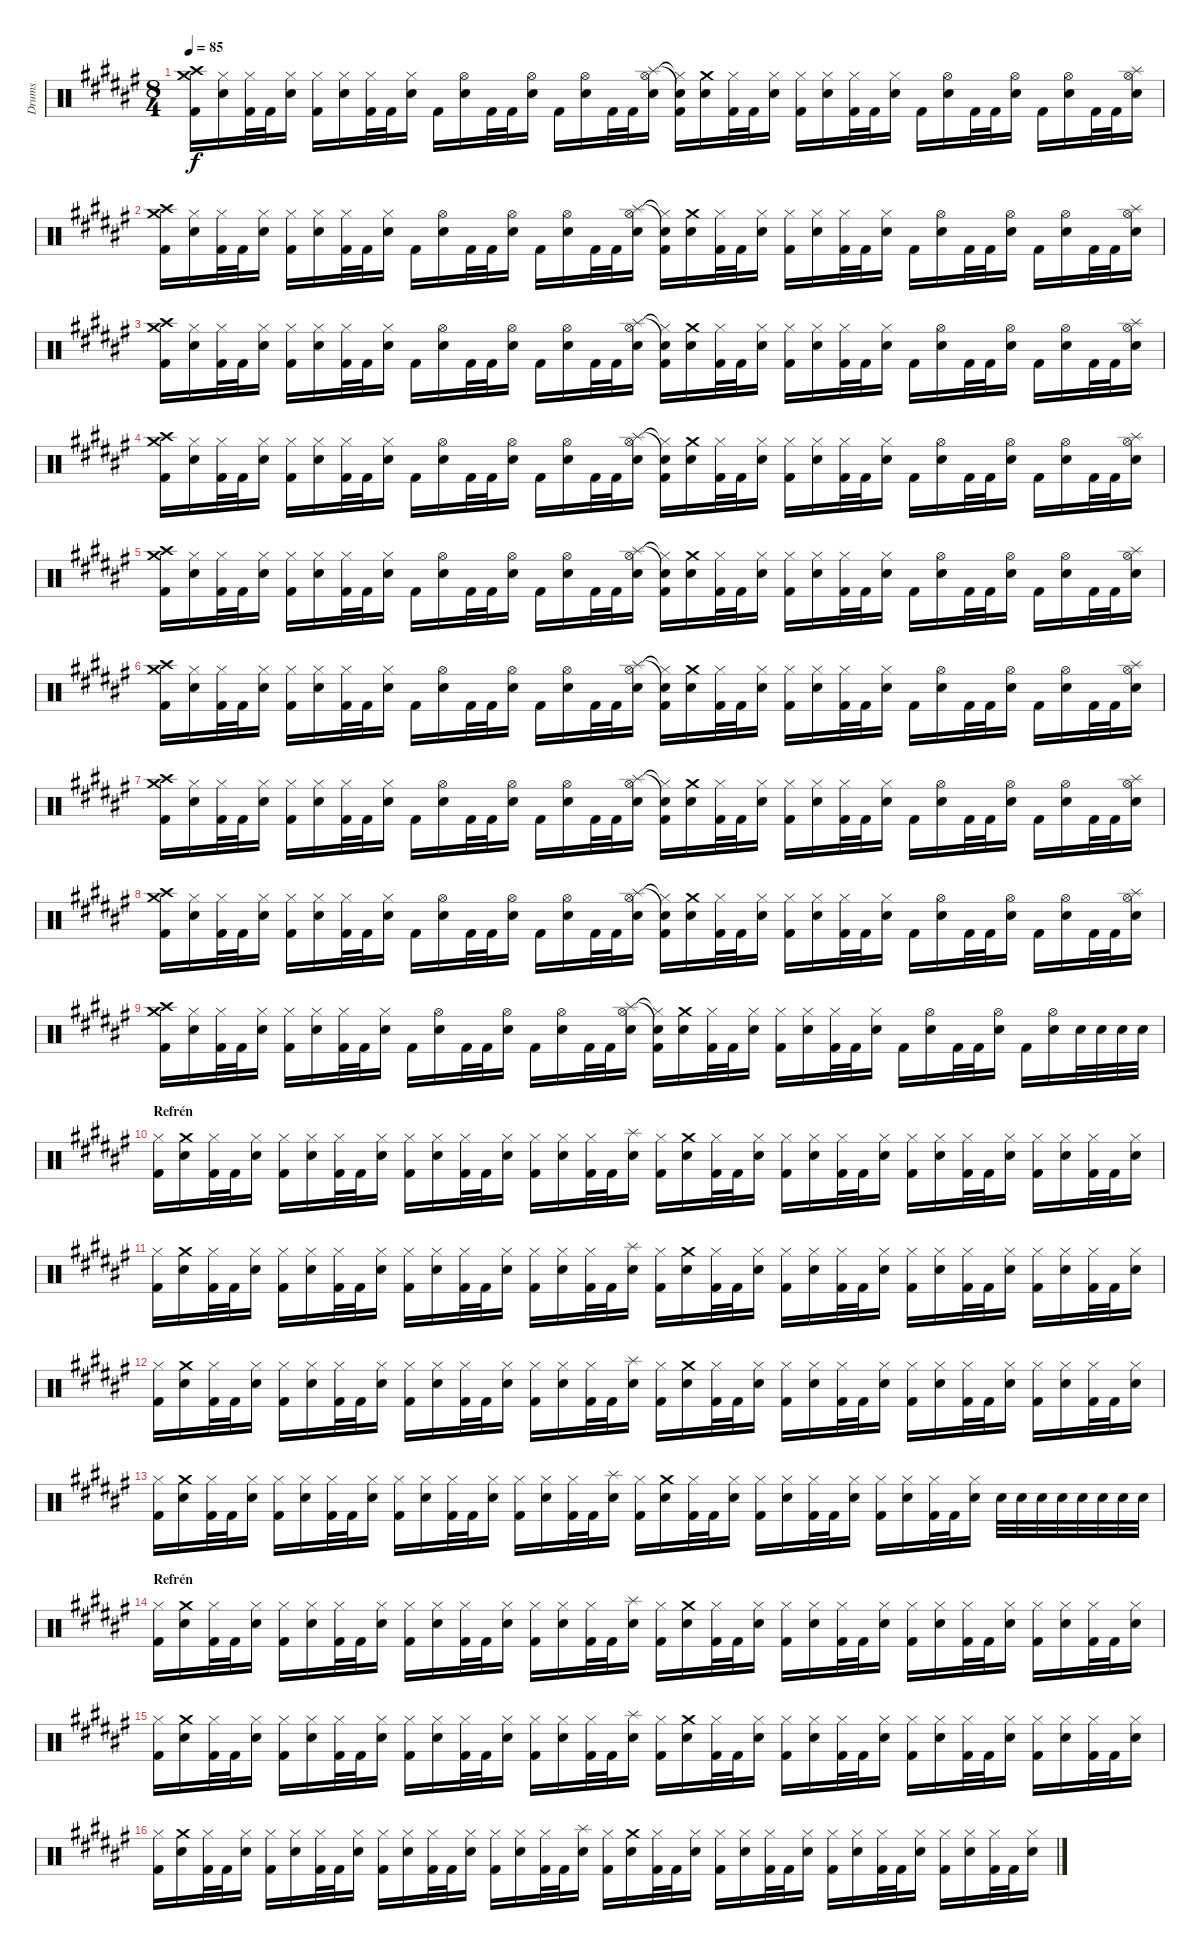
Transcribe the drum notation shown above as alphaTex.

\track ("Drums" "Drums") {instrument percussion}
\staff {score}
\articulation defaults
\ts (8 4)
\tempo 85
\clef neutral
\ks d#minor
("Crash medium (hit)" "Crash high (hit)" "Kick (hit) 2").16{dy f} ("Hi-Hat (closed)" "Snare (hit) 2").16 ("Hi-Hat (closed)" "Kick (hit) 2").32 "Kick (hit) 2".32 ("Hi-Hat (closed)" "Snare (hit) 2").16 ("Hi-Hat (closed)" "Kick (hit) 2").16 ("Hi-Hat (closed)" "Snare (hit) 2").16 ("Hi-Hat (closed)" "Kick (hit) 2").32 "Kick (hit) 2".32 ("Hi-Hat (closed)" "Snare (hit) 2").16 "Kick (hit) 2".16 ("Hi-Hat (open)" "Snare (hit) 2").16 "Kick (hit) 2".32 "Kick (hit) 2".32 ("Hi-Hat (open)" "Snare (hit) 2").16 "Kick (hit) 2".16 ("Hi-Hat (open)" "Snare (hit) 2").16 "Kick (hit) 2".32 "Kick (hit) 2".32 ("Hi-Hat (open)" "Splash (hit)" "Snare (hit) 2").16 ("Hi-Hat (closed)"{t} "Snare (hit)"{t} "Kick (hit) 2").16 ("Crash medium (hit)" "Snare (hit) 2").16 ("Hi-Hat (closed)" "Kick (hit) 2").32 "Kick (hit) 2".32 ("Hi-Hat (closed)" "Snare (hit) 2").16 ("Hi-Hat (closed)" "Kick (hit) 2").16 ("Hi-Hat (closed)" "Snare (hit) 2").16 ("Hi-Hat (closed)" "Kick (hit) 2").32 "Kick (hit) 2".32 ("Hi-Hat (closed)" "Snare (hit) 2").16 "Kick (hit) 2".16 ("Hi-Hat (open)" "Snare (hit) 2").16 "Kick (hit) 2".32 "Kick (hit) 2".32 ("Hi-Hat (open)" "Snare (hit) 2").16 "Kick (hit) 2".16 ("Hi-Hat (open)" "Snare (hit) 2").16 "Kick (hit) 2".32 "Kick (hit) 2".32 ("Hi-Hat (open)" "Splash (hit)" "Snare (hit) 2").16 |
("Crash medium (hit)" "Crash high (hit)" "Kick (hit) 2").16 ("Hi-Hat (closed)" "Snare (hit) 2").16 ("Hi-Hat (closed)" "Kick (hit) 2").32 "Kick (hit) 2".32 ("Hi-Hat (closed)" "Snare (hit) 2").16 ("Hi-Hat (closed)" "Kick (hit) 2").16 ("Hi-Hat (closed)" "Snare (hit) 2").16 ("Hi-Hat (closed)" "Kick (hit) 2").32 "Kick (hit) 2".32 ("Hi-Hat (closed)" "Snare (hit) 2").16 "Kick (hit) 2".16 ("Hi-Hat (open)" "Snare (hit) 2").16 "Kick (hit) 2".32 "Kick (hit) 2".32 ("Hi-Hat (open)" "Snare (hit) 2").16 "Kick (hit) 2".16 ("Hi-Hat (open)" "Snare (hit) 2").16 "Kick (hit) 2".32 "Kick (hit) 2".32 ("Hi-Hat (open)" "Splash (hit)" "Snare (hit) 2").16 ("Hi-Hat (closed)"{t} "Snare (hit)"{t} "Kick (hit) 2").16 ("Crash medium (hit)" "Snare (hit) 2").16 ("Hi-Hat (closed)" "Kick (hit) 2").32 "Kick (hit) 2".32 ("Hi-Hat (closed)" "Snare (hit) 2").16 ("Hi-Hat (closed)" "Kick (hit) 2").16 ("Hi-Hat (closed)" "Snare (hit) 2").16 ("Hi-Hat (closed)" "Kick (hit) 2").32 "Kick (hit) 2".32 ("Hi-Hat (closed)" "Snare (hit) 2").16 "Kick (hit) 2".16 ("Hi-Hat (open)" "Snare (hit) 2").16 "Kick (hit) 2".32 "Kick (hit) 2".32 ("Hi-Hat (open)" "Snare (hit) 2").16 "Kick (hit) 2".16 ("Hi-Hat (open)" "Snare (hit) 2").16 "Kick (hit) 2".32 "Kick (hit) 2".32 ("Hi-Hat (open)" "Splash (hit)" "Snare (hit) 2").16 |
("Crash medium (hit)" "Crash high (hit)" "Kick (hit) 2").16 ("Hi-Hat (closed)" "Snare (hit) 2").16 ("Hi-Hat (closed)" "Kick (hit) 2").32 "Kick (hit) 2".32 ("Hi-Hat (closed)" "Snare (hit) 2").16 ("Hi-Hat (closed)" "Kick (hit) 2").16 ("Hi-Hat (closed)" "Snare (hit) 2").16 ("Hi-Hat (closed)" "Kick (hit) 2").32 "Kick (hit) 2".32 ("Hi-Hat (closed)" "Snare (hit) 2").16 "Kick (hit) 2".16 ("Hi-Hat (open)" "Snare (hit) 2").16 "Kick (hit) 2".32 "Kick (hit) 2".32 ("Hi-Hat (open)" "Snare (hit) 2").16 "Kick (hit) 2".16 ("Hi-Hat (open)" "Snare (hit) 2").16 "Kick (hit) 2".32 "Kick (hit) 2".32 ("Hi-Hat (open)" "Splash (hit)" "Snare (hit) 2").16 ("Hi-Hat (closed)"{t} "Snare (hit)"{t} "Kick (hit) 2").16 ("Crash medium (hit)" "Snare (hit) 2").16 ("Hi-Hat (closed)" "Kick (hit) 2").32 "Kick (hit) 2".32 ("Hi-Hat (closed)" "Snare (hit) 2").16 ("Hi-Hat (closed)" "Kick (hit) 2").16 ("Hi-Hat (closed)" "Snare (hit) 2").16 ("Hi-Hat (closed)" "Kick (hit) 2").32 "Kick (hit) 2".32 ("Hi-Hat (closed)" "Snare (hit) 2").16 "Kick (hit) 2".16 ("Hi-Hat (open)" "Snare (hit) 2").16 "Kick (hit) 2".32 "Kick (hit) 2".32 ("Hi-Hat (open)" "Snare (hit) 2").16 "Kick (hit) 2".16 ("Hi-Hat (open)" "Snare (hit) 2").16 "Kick (hit) 2".32 "Kick (hit) 2".32 ("Hi-Hat (open)" "Splash (hit)" "Snare (hit) 2").16 |
("Crash medium (hit)" "Crash high (hit)" "Kick (hit) 2").16 ("Hi-Hat (closed)" "Snare (hit) 2").16 ("Hi-Hat (closed)" "Kick (hit) 2").32 "Kick (hit) 2".32 ("Hi-Hat (closed)" "Snare (hit) 2").16 ("Hi-Hat (closed)" "Kick (hit) 2").16 ("Hi-Hat (closed)" "Snare (hit) 2").16 ("Hi-Hat (closed)" "Kick (hit) 2").32 "Kick (hit) 2".32 ("Hi-Hat (closed)" "Snare (hit) 2").16 "Kick (hit) 2".16 ("Hi-Hat (open)" "Snare (hit) 2").16 "Kick (hit) 2".32 "Kick (hit) 2".32 ("Hi-Hat (open)" "Snare (hit) 2").16 "Kick (hit) 2".16 ("Hi-Hat (open)" "Snare (hit) 2").16 "Kick (hit) 2".32 "Kick (hit) 2".32 ("Hi-Hat (open)" "Splash (hit)" "Snare (hit) 2").16 ("Hi-Hat (closed)"{t} "Snare (hit)"{t} "Kick (hit) 2").16 ("Crash medium (hit)" "Snare (hit) 2").16 ("Hi-Hat (closed)" "Kick (hit) 2").32 "Kick (hit) 2".32 ("Hi-Hat (closed)" "Snare (hit) 2").16 ("Hi-Hat (closed)" "Kick (hit) 2").16 ("Hi-Hat (closed)" "Snare (hit) 2").16 ("Hi-Hat (closed)" "Kick (hit) 2").32 "Kick (hit) 2".32 ("Hi-Hat (closed)" "Snare (hit) 2").16 "Kick (hit) 2".16 ("Hi-Hat (open)" "Snare (hit) 2").16 "Kick (hit) 2".32 "Kick (hit) 2".32 ("Hi-Hat (open)" "Snare (hit) 2").16 "Kick (hit) 2".16 ("Hi-Hat (open)" "Snare (hit) 2").16 "Kick (hit) 2".32 "Kick (hit) 2".32 ("Hi-Hat (open)" "Splash (hit)" "Snare (hit) 2").16 |
("Crash medium (hit)" "Crash high (hit)" "Kick (hit) 2").16 ("Hi-Hat (closed)" "Snare (hit) 2").16 ("Hi-Hat (closed)" "Kick (hit) 2").32 "Kick (hit) 2".32 ("Hi-Hat (closed)" "Snare (hit) 2").16 ("Hi-Hat (closed)" "Kick (hit) 2").16 ("Hi-Hat (closed)" "Snare (hit) 2").16 ("Hi-Hat (closed)" "Kick (hit) 2").32 "Kick (hit) 2".32 ("Hi-Hat (closed)" "Snare (hit) 2").16 "Kick (hit) 2".16 ("Hi-Hat (open)" "Snare (hit) 2").16 "Kick (hit) 2".32 "Kick (hit) 2".32 ("Hi-Hat (open)" "Snare (hit) 2").16 "Kick (hit) 2".16 ("Hi-Hat (open)" "Snare (hit) 2").16 "Kick (hit) 2".32 "Kick (hit) 2".32 ("Hi-Hat (open)" "Splash (hit)" "Snare (hit) 2").16 ("Hi-Hat (closed)"{t} "Snare (hit)"{t} "Kick (hit) 2").16 ("Crash medium (hit)" "Snare (hit) 2").16 ("Hi-Hat (closed)" "Kick (hit) 2").32 "Kick (hit) 2".32 ("Hi-Hat (closed)" "Snare (hit) 2").16 ("Hi-Hat (closed)" "Kick (hit) 2").16 ("Hi-Hat (closed)" "Snare (hit) 2").16 ("Hi-Hat (closed)" "Kick (hit) 2").32 "Kick (hit) 2".32 ("Hi-Hat (closed)" "Snare (hit) 2").16 "Kick (hit) 2".16 ("Hi-Hat (open)" "Snare (hit) 2").16 "Kick (hit) 2".32 "Kick (hit) 2".32 ("Hi-Hat (open)" "Snare (hit) 2").16 "Kick (hit) 2".16 ("Hi-Hat (open)" "Snare (hit) 2").16 "Kick (hit) 2".32 "Kick (hit) 2".32 ("Hi-Hat (open)" "Splash (hit)" "Snare (hit) 2").16 |
("Crash medium (hit)" "Crash high (hit)" "Kick (hit) 2").16 ("Hi-Hat (closed)" "Snare (hit) 2").16 ("Hi-Hat (closed)" "Kick (hit) 2").32 "Kick (hit) 2".32 ("Hi-Hat (closed)" "Snare (hit) 2").16 ("Hi-Hat (closed)" "Kick (hit) 2").16 ("Hi-Hat (closed)" "Snare (hit) 2").16 ("Hi-Hat (closed)" "Kick (hit) 2").32 "Kick (hit) 2".32 ("Hi-Hat (closed)" "Snare (hit) 2").16 "Kick (hit) 2".16 ("Hi-Hat (open)" "Snare (hit) 2").16 "Kick (hit) 2".32 "Kick (hit) 2".32 ("Hi-Hat (open)" "Snare (hit) 2").16 "Kick (hit) 2".16 ("Hi-Hat (open)" "Snare (hit) 2").16 "Kick (hit) 2".32 "Kick (hit) 2".32 ("Hi-Hat (open)" "Splash (hit)" "Snare (hit) 2").16 ("Hi-Hat (closed)"{t} "Snare (hit)"{t} "Kick (hit) 2").16 ("Crash medium (hit)" "Snare (hit) 2").16 ("Hi-Hat (closed)" "Kick (hit) 2").32 "Kick (hit) 2".32 ("Hi-Hat (closed)" "Snare (hit) 2").16 ("Hi-Hat (closed)" "Kick (hit) 2").16 ("Hi-Hat (closed)" "Snare (hit) 2").16 ("Hi-Hat (closed)" "Kick (hit) 2").32 "Kick (hit) 2".32 ("Hi-Hat (closed)" "Snare (hit) 2").16 "Kick (hit) 2".16 ("Hi-Hat (open)" "Snare (hit) 2").16 "Kick (hit) 2".32 "Kick (hit) 2".32 ("Hi-Hat (open)" "Snare (hit) 2").16 "Kick (hit) 2".16 ("Hi-Hat (open)" "Snare (hit) 2").16 "Kick (hit) 2".32 "Kick (hit) 2".32 ("Hi-Hat (open)" "Splash (hit)" "Snare (hit) 2").16 |
("Crash medium (hit)" "Crash high (hit)" "Kick (hit) 2").16 ("Hi-Hat (closed)" "Snare (hit) 2").16 ("Hi-Hat (closed)" "Kick (hit) 2").32 "Kick (hit) 2".32 ("Hi-Hat (closed)" "Snare (hit) 2").16 ("Hi-Hat (closed)" "Kick (hit) 2").16 ("Hi-Hat (closed)" "Snare (hit) 2").16 ("Hi-Hat (closed)" "Kick (hit) 2").32 "Kick (hit) 2".32 ("Hi-Hat (closed)" "Snare (hit) 2").16 "Kick (hit) 2".16 ("Hi-Hat (open)" "Snare (hit) 2").16 "Kick (hit) 2".32 "Kick (hit) 2".32 ("Hi-Hat (open)" "Snare (hit) 2").16 "Kick (hit) 2".16 ("Hi-Hat (open)" "Snare (hit) 2").16 "Kick (hit) 2".32 "Kick (hit) 2".32 ("Hi-Hat (open)" "Splash (hit)" "Snare (hit) 2").16 ("Hi-Hat (closed)"{t} "Snare (hit)"{t} "Kick (hit) 2").16 ("Crash medium (hit)" "Snare (hit) 2").16 ("Hi-Hat (closed)" "Kick (hit) 2").32 "Kick (hit) 2".32 ("Hi-Hat (closed)" "Snare (hit) 2").16 ("Hi-Hat (closed)" "Kick (hit) 2").16 ("Hi-Hat (closed)" "Snare (hit) 2").16 ("Hi-Hat (closed)" "Kick (hit) 2").32 "Kick (hit) 2".32 ("Hi-Hat (closed)" "Snare (hit) 2").16 "Kick (hit) 2".16 ("Hi-Hat (open)" "Snare (hit) 2").16 "Kick (hit) 2".32 "Kick (hit) 2".32 ("Hi-Hat (open)" "Snare (hit) 2").16 "Kick (hit) 2".16 ("Hi-Hat (open)" "Snare (hit) 2").16 "Kick (hit) 2".32 "Kick (hit) 2".32 ("Hi-Hat (open)" "Splash (hit)" "Snare (hit) 2").16 |
("Crash medium (hit)" "Crash high (hit)" "Kick (hit) 2").16 ("Hi-Hat (closed)" "Snare (hit) 2").16 ("Hi-Hat (closed)" "Kick (hit) 2").32 "Kick (hit) 2".32 ("Hi-Hat (closed)" "Snare (hit) 2").16 ("Hi-Hat (closed)" "Kick (hit) 2").16 ("Hi-Hat (closed)" "Snare (hit) 2").16 ("Hi-Hat (closed)" "Kick (hit) 2").32 "Kick (hit) 2".32 ("Hi-Hat (closed)" "Snare (hit) 2").16 "Kick (hit) 2".16 ("Hi-Hat (open)" "Snare (hit) 2").16 "Kick (hit) 2".32 "Kick (hit) 2".32 ("Hi-Hat (open)" "Snare (hit) 2").16 "Kick (hit) 2".16 ("Hi-Hat (open)" "Snare (hit) 2").16 "Kick (hit) 2".32 "Kick (hit) 2".32 ("Hi-Hat (open)" "Splash (hit)" "Snare (hit) 2").16 ("Hi-Hat (closed)"{t} "Snare (hit)"{t} "Kick (hit) 2").16 ("Crash medium (hit)" "Snare (hit) 2").16 ("Hi-Hat (closed)" "Kick (hit) 2").32 "Kick (hit) 2".32 ("Hi-Hat (closed)" "Snare (hit) 2").16 ("Hi-Hat (closed)" "Kick (hit) 2").16 ("Hi-Hat (closed)" "Snare (hit) 2").16 ("Hi-Hat (closed)" "Kick (hit) 2").32 "Kick (hit) 2".32 ("Hi-Hat (closed)" "Snare (hit) 2").16 "Kick (hit) 2".16 ("Hi-Hat (open)" "Snare (hit) 2").16 "Kick (hit) 2".32 "Kick (hit) 2".32 ("Hi-Hat (open)" "Snare (hit) 2").16 "Kick (hit) 2".16 ("Hi-Hat (open)" "Snare (hit) 2").16 "Kick (hit) 2".32 "Kick (hit) 2".32 ("Hi-Hat (open)" "Splash (hit)" "Snare (hit) 2").16 |
("Crash medium (hit)" "Crash high (hit)" "Kick (hit) 2").16 ("Hi-Hat (closed)" "Snare (hit) 2").16 ("Hi-Hat (closed)" "Kick (hit) 2").32 "Kick (hit) 2".32 ("Hi-Hat (closed)" "Snare (hit) 2").16 ("Hi-Hat (closed)" "Kick (hit) 2").16 ("Hi-Hat (closed)" "Snare (hit) 2").16 ("Hi-Hat (closed)" "Kick (hit) 2").32 "Kick (hit) 2".32 ("Hi-Hat (closed)" "Snare (hit) 2").16 "Kick (hit) 2".16 ("Hi-Hat (open)" "Snare (hit) 2").16 "Kick (hit) 2".32 "Kick (hit) 2".32 ("Hi-Hat (open)" "Snare (hit) 2").16 "Kick (hit) 2".16 ("Hi-Hat (open)" "Snare (hit) 2").16 "Kick (hit) 2".32 "Kick (hit) 2".32 ("Hi-Hat (open)" "Splash (hit)" "Snare (hit) 2").16 ("Hi-Hat (closed)"{t} "Snare (hit)"{t} "Kick (hit) 2").16 ("Crash medium (hit)" "Snare (hit) 2").16 ("Hi-Hat (closed)" "Kick (hit) 2").32 "Kick (hit) 2".32 ("Hi-Hat (closed)" "Snare (hit) 2").16 ("Hi-Hat (closed)" "Kick (hit) 2").16 ("Hi-Hat (closed)" "Snare (hit) 2").16 ("Hi-Hat (closed)" "Kick (hit) 2").32 "Kick (hit) 2".32 ("Hi-Hat (closed)" "Snare (hit) 2").16 "Kick (hit) 2".16 ("Hi-Hat (open)" "Snare (hit) 2").16 "Kick (hit) 2".32 "Kick (hit) 2".32 ("Hi-Hat (open)" "Snare (hit) 2").16 "Kick (hit) 2".16 ("Hi-Hat (open)" "Snare (hit) 2").16 "Snare (hit) 2".32 "Snare (hit) 2".32 "Snare (hit) 2".32 "Snare (hit) 2".32 |
\section ("" "Refrén")
("Hi-Hat (closed)" "Kick (hit) 2").16 ("Crash medium (hit)" "Snare (hit) 2").16 ("Hi-Hat (closed)" "Kick (hit) 2").32 "Kick (hit) 2".32 ("Hi-Hat (closed)" "Snare (hit) 2").16 ("Hi-Hat (closed)" "Kick (hit) 2").16 ("Hi-Hat (closed)" "Snare (hit) 2").16 ("Hi-Hat (closed)" "Kick (hit) 2").32 "Kick (hit) 2".32 ("Hi-Hat (closed)" "Snare (hit) 2").16 ("Hi-Hat (closed)" "Kick (hit) 2").16 ("Hi-Hat (closed)" "Snare (hit) 2").16 ("Hi-Hat (closed)" "Kick (hit) 2").32 "Kick (hit) 2".32 ("Hi-Hat (closed)" "Snare (hit) 2").16 ("Hi-Hat (closed)" "Kick (hit) 2").16 ("Hi-Hat (closed)" "Snare (hit) 2").16 ("Hi-Hat (closed)" "Kick (hit) 2").32 "Kick (hit) 2".32 ("Splash (hit)" "Snare (hit) 2").16 ("Hi-Hat (closed)" "Kick (hit) 2").16 ("Crash medium (hit)" "Snare (hit) 2").16 ("Hi-Hat (closed)" "Kick (hit) 2").32 "Kick (hit) 2".32 ("Hi-Hat (closed)" "Snare (hit) 2").16 ("Hi-Hat (closed)" "Kick (hit) 2").16 ("Hi-Hat (closed)" "Snare (hit) 2").16 ("Hi-Hat (closed)" "Kick (hit) 2").32 "Kick (hit) 2".32 ("Hi-Hat (closed)" "Snare (hit) 2").16 ("Hi-Hat (closed)" "Kick (hit) 2").16 ("Hi-Hat (closed)" "Snare (hit) 2").16 ("Hi-Hat (closed)" "Kick (hit) 2").32 "Kick (hit) 2".32 ("Hi-Hat (closed)" "Snare (hit) 2").16 ("Hi-Hat (closed)" "Kick (hit) 2").16 ("Hi-Hat (closed)" "Snare (hit) 2").16 ("Hi-Hat (closed)" "Kick (hit) 2").32 "Kick (hit) 2".32 ("Hi-Hat (closed)" "Snare (hit) 2").16 |
("Hi-Hat (closed)" "Kick (hit) 2").16 ("Crash medium (hit)" "Snare (hit) 2").16 ("Hi-Hat (closed)" "Kick (hit) 2").32 "Kick (hit) 2".32 ("Hi-Hat (closed)" "Snare (hit) 2").16 ("Hi-Hat (closed)" "Kick (hit) 2").16 ("Hi-Hat (closed)" "Snare (hit) 2").16 ("Hi-Hat (closed)" "Kick (hit) 2").32 "Kick (hit) 2".32 ("Hi-Hat (closed)" "Snare (hit) 2").16 ("Hi-Hat (closed)" "Kick (hit) 2").16 ("Hi-Hat (closed)" "Snare (hit) 2").16 ("Hi-Hat (closed)" "Kick (hit) 2").32 "Kick (hit) 2".32 ("Hi-Hat (closed)" "Snare (hit) 2").16 ("Hi-Hat (closed)" "Kick (hit) 2").16 ("Hi-Hat (closed)" "Snare (hit) 2").16 ("Hi-Hat (closed)" "Kick (hit) 2").32 "Kick (hit) 2".32 ("Splash (hit)" "Snare (hit) 2").16 ("Hi-Hat (closed)" "Kick (hit) 2").16 ("Crash medium (hit)" "Snare (hit) 2").16 ("Hi-Hat (closed)" "Kick (hit) 2").32 "Kick (hit) 2".32 ("Hi-Hat (closed)" "Snare (hit) 2").16 ("Hi-Hat (closed)" "Kick (hit) 2").16 ("Hi-Hat (closed)" "Snare (hit) 2").16 ("Hi-Hat (closed)" "Kick (hit) 2").32 "Kick (hit) 2".32 ("Hi-Hat (closed)" "Snare (hit) 2").16 ("Hi-Hat (closed)" "Kick (hit) 2").16 ("Hi-Hat (closed)" "Snare (hit) 2").16 ("Hi-Hat (closed)" "Kick (hit) 2").32 "Kick (hit) 2".32 ("Hi-Hat (closed)" "Snare (hit) 2").16 ("Hi-Hat (closed)" "Kick (hit) 2").16 ("Hi-Hat (closed)" "Snare (hit) 2").16 ("Hi-Hat (closed)" "Kick (hit) 2").32 "Kick (hit) 2".32 ("Hi-Hat (closed)" "Snare (hit) 2").16 |
("Hi-Hat (closed)" "Kick (hit) 2").16 ("Crash medium (hit)" "Snare (hit) 2").16 ("Hi-Hat (closed)" "Kick (hit) 2").32 "Kick (hit) 2".32 ("Hi-Hat (closed)" "Snare (hit) 2").16 ("Hi-Hat (closed)" "Kick (hit) 2").16 ("Hi-Hat (closed)" "Snare (hit) 2").16 ("Hi-Hat (closed)" "Kick (hit) 2").32 "Kick (hit) 2".32 ("Hi-Hat (closed)" "Snare (hit) 2").16 ("Hi-Hat (closed)" "Kick (hit) 2").16 ("Hi-Hat (closed)" "Snare (hit) 2").16 ("Hi-Hat (closed)" "Kick (hit) 2").32 "Kick (hit) 2".32 ("Hi-Hat (closed)" "Snare (hit) 2").16 ("Hi-Hat (closed)" "Kick (hit) 2").16 ("Hi-Hat (closed)" "Snare (hit) 2").16 ("Hi-Hat (closed)" "Kick (hit) 2").32 "Kick (hit) 2".32 ("Splash (hit)" "Snare (hit) 2").16 ("Hi-Hat (closed)" "Kick (hit) 2").16 ("Crash medium (hit)" "Snare (hit) 2").16 ("Hi-Hat (closed)" "Kick (hit) 2").32 "Kick (hit) 2".32 ("Hi-Hat (closed)" "Snare (hit) 2").16 ("Hi-Hat (closed)" "Kick (hit) 2").16 ("Hi-Hat (closed)" "Snare (hit) 2").16 ("Hi-Hat (closed)" "Kick (hit) 2").32 "Kick (hit) 2".32 ("Hi-Hat (closed)" "Snare (hit) 2").16 ("Hi-Hat (closed)" "Kick (hit) 2").16 ("Hi-Hat (closed)" "Snare (hit) 2").16 ("Hi-Hat (closed)" "Kick (hit) 2").32 "Kick (hit) 2".32 ("Hi-Hat (closed)" "Snare (hit) 2").16 ("Hi-Hat (closed)" "Kick (hit) 2").16 ("Hi-Hat (closed)" "Snare (hit) 2").16 ("Hi-Hat (closed)" "Kick (hit) 2").32 "Kick (hit) 2".32 ("Hi-Hat (closed)" "Snare (hit) 2").16 |
("Hi-Hat (closed)" "Kick (hit) 2").16 ("Crash medium (hit)" "Snare (hit) 2").16 ("Hi-Hat (closed)" "Kick (hit) 2").32 "Kick (hit) 2".32 ("Hi-Hat (closed)" "Snare (hit) 2").16 ("Hi-Hat (closed)" "Kick (hit) 2").16 ("Hi-Hat (closed)" "Snare (hit) 2").16 ("Hi-Hat (closed)" "Kick (hit) 2").32 "Kick (hit) 2".32 ("Hi-Hat (closed)" "Snare (hit) 2").16 ("Hi-Hat (closed)" "Kick (hit) 2").16 ("Hi-Hat (closed)" "Snare (hit) 2").16 ("Hi-Hat (closed)" "Kick (hit) 2").32 "Kick (hit) 2".32 ("Hi-Hat (closed)" "Snare (hit) 2").16 ("Hi-Hat (closed)" "Kick (hit) 2").16 ("Hi-Hat (closed)" "Snare (hit) 2").16 ("Hi-Hat (closed)" "Kick (hit) 2").32 "Kick (hit) 2".32 ("Splash (hit)" "Snare (hit) 2").16 ("Hi-Hat (closed)" "Kick (hit) 2").16 ("Crash medium (hit)" "Snare (hit) 2").16 ("Hi-Hat (closed)" "Kick (hit) 2").32 "Kick (hit) 2".32 ("Hi-Hat (closed)" "Snare (hit) 2").16 ("Hi-Hat (closed)" "Kick (hit) 2").16 ("Hi-Hat (closed)" "Snare (hit) 2").16 ("Hi-Hat (closed)" "Kick (hit) 2").32 "Kick (hit) 2".32 ("Hi-Hat (closed)" "Snare (hit) 2").16 ("Hi-Hat (closed)" "Kick (hit) 2").16 ("Hi-Hat (closed)" "Snare (hit) 2").16 ("Hi-Hat (closed)" "Kick (hit) 2").32 "Kick (hit) 2".32 ("Hi-Hat (closed)" "Snare (hit) 2").16 "Snare (hit) 2".32 "Snare (hit) 2".32 "Snare (hit) 2".32 "Snare (hit) 2".32 "Snare (hit) 2".32 "Snare (hit) 2".32 "Snare (hit) 2".32 "Snare (hit) 2".32 |
\section ("" "Refrén")
("Hi-Hat (closed)" "Kick (hit) 2").16 ("Crash medium (hit)" "Snare (hit) 2").16 ("Hi-Hat (closed)" "Kick (hit) 2").32 "Kick (hit) 2".32 ("Hi-Hat (closed)" "Snare (hit) 2").16 ("Hi-Hat (closed)" "Kick (hit) 2").16 ("Hi-Hat (closed)" "Snare (hit) 2").16 ("Hi-Hat (closed)" "Kick (hit) 2").32 "Kick (hit) 2".32 ("Hi-Hat (closed)" "Snare (hit) 2").16 ("Hi-Hat (closed)" "Kick (hit) 2").16 ("Hi-Hat (closed)" "Snare (hit) 2").16 ("Hi-Hat (closed)" "Kick (hit) 2").32 "Kick (hit) 2".32 ("Hi-Hat (closed)" "Snare (hit) 2").16 ("Hi-Hat (closed)" "Kick (hit) 2").16 ("Hi-Hat (closed)" "Snare (hit) 2").16 ("Hi-Hat (closed)" "Kick (hit) 2").32 "Kick (hit) 2".32 ("Splash (hit)" "Snare (hit) 2").16 ("Hi-Hat (closed)" "Kick (hit) 2").16 ("Crash medium (hit)" "Snare (hit) 2").16 ("Hi-Hat (closed)" "Kick (hit) 2").32 "Kick (hit) 2".32 ("Hi-Hat (closed)" "Snare (hit) 2").16 ("Hi-Hat (closed)" "Kick (hit) 2").16 ("Hi-Hat (closed)" "Snare (hit) 2").16 ("Hi-Hat (closed)" "Kick (hit) 2").32 "Kick (hit) 2".32 ("Hi-Hat (closed)" "Snare (hit) 2").16 ("Hi-Hat (closed)" "Kick (hit) 2").16 ("Hi-Hat (closed)" "Snare (hit) 2").16 ("Hi-Hat (closed)" "Kick (hit) 2").32 "Kick (hit) 2".32 ("Hi-Hat (closed)" "Snare (hit) 2").16 ("Hi-Hat (closed)" "Kick (hit) 2").16 ("Hi-Hat (closed)" "Snare (hit) 2").16 ("Hi-Hat (closed)" "Kick (hit) 2").32 "Kick (hit) 2".32 ("Hi-Hat (closed)" "Snare (hit) 2").16 |
("Hi-Hat (closed)" "Kick (hit) 2").16 ("Crash medium (hit)" "Snare (hit) 2").16 ("Hi-Hat (closed)" "Kick (hit) 2").32 "Kick (hit) 2".32 ("Hi-Hat (closed)" "Snare (hit) 2").16 ("Hi-Hat (closed)" "Kick (hit) 2").16 ("Hi-Hat (closed)" "Snare (hit) 2").16 ("Hi-Hat (closed)" "Kick (hit) 2").32 "Kick (hit) 2".32 ("Hi-Hat (closed)" "Snare (hit) 2").16 ("Hi-Hat (closed)" "Kick (hit) 2").16 ("Hi-Hat (closed)" "Snare (hit) 2").16 ("Hi-Hat (closed)" "Kick (hit) 2").32 "Kick (hit) 2".32 ("Hi-Hat (closed)" "Snare (hit) 2").16 ("Hi-Hat (closed)" "Kick (hit) 2").16 ("Hi-Hat (closed)" "Snare (hit) 2").16 ("Hi-Hat (closed)" "Kick (hit) 2").32 "Kick (hit) 2".32 ("Splash (hit)" "Snare (hit) 2").16 ("Hi-Hat (closed)" "Kick (hit) 2").16 ("Crash medium (hit)" "Snare (hit) 2").16 ("Hi-Hat (closed)" "Kick (hit) 2").32 "Kick (hit) 2".32 ("Hi-Hat (closed)" "Snare (hit) 2").16 ("Hi-Hat (closed)" "Kick (hit) 2").16 ("Hi-Hat (closed)" "Snare (hit) 2").16 ("Hi-Hat (closed)" "Kick (hit) 2").32 "Kick (hit) 2".32 ("Hi-Hat (closed)" "Snare (hit) 2").16 ("Hi-Hat (closed)" "Kick (hit) 2").16 ("Hi-Hat (closed)" "Snare (hit) 2").16 ("Hi-Hat (closed)" "Kick (hit) 2").32 "Kick (hit) 2".32 ("Hi-Hat (closed)" "Snare (hit) 2").16 ("Hi-Hat (closed)" "Kick (hit) 2").16 ("Hi-Hat (closed)" "Snare (hit) 2").16 ("Hi-Hat (closed)" "Kick (hit) 2").32 "Kick (hit) 2".32 ("Hi-Hat (closed)" "Snare (hit) 2").16 |
("Hi-Hat (closed)" "Kick (hit) 2").16 ("Crash medium (hit)" "Snare (hit) 2").16 ("Hi-Hat (closed)" "Kick (hit) 2").32 "Kick (hit) 2".32 ("Hi-Hat (closed)" "Snare (hit) 2").16 ("Hi-Hat (closed)" "Kick (hit) 2").16 ("Hi-Hat (closed)" "Snare (hit) 2").16 ("Hi-Hat (closed)" "Kick (hit) 2").32 "Kick (hit) 2".32 ("Hi-Hat (closed)" "Snare (hit) 2").16 ("Hi-Hat (closed)" "Kick (hit) 2").16 ("Hi-Hat (closed)" "Snare (hit) 2").16 ("Hi-Hat (closed)" "Kick (hit) 2").32 "Kick (hit) 2".32 ("Hi-Hat (closed)" "Snare (hit) 2").16 ("Hi-Hat (closed)" "Kick (hit) 2").16 ("Hi-Hat (closed)" "Snare (hit) 2").16 ("Hi-Hat (closed)" "Kick (hit) 2").32 "Kick (hit) 2".32 ("Splash (hit)" "Snare (hit) 2").16 ("Hi-Hat (closed)" "Kick (hit) 2").16 ("Crash medium (hit)" "Snare (hit) 2").16 ("Hi-Hat (closed)" "Kick (hit) 2").32 "Kick (hit) 2".32 ("Hi-Hat (closed)" "Snare (hit) 2").16 ("Hi-Hat (closed)" "Kick (hit) 2").16 ("Hi-Hat (closed)" "Snare (hit) 2").16 ("Hi-Hat (closed)" "Kick (hit) 2").32 "Kick (hit) 2".32 ("Hi-Hat (closed)" "Snare (hit) 2").16 ("Hi-Hat (closed)" "Kick (hit) 2").16 ("Hi-Hat (closed)" "Snare (hit) 2").16 ("Hi-Hat (closed)" "Kick (hit) 2").32 "Kick (hit) 2".32 ("Hi-Hat (closed)" "Snare (hit) 2").16 ("Hi-Hat (closed)" "Kick (hit) 2").16 ("Hi-Hat (closed)" "Snare (hit) 2").16 ("Hi-Hat (closed)" "Kick (hit) 2").32 "Kick (hit) 2".32 ("Hi-Hat (closed)" "Snare (hit) 2").16
